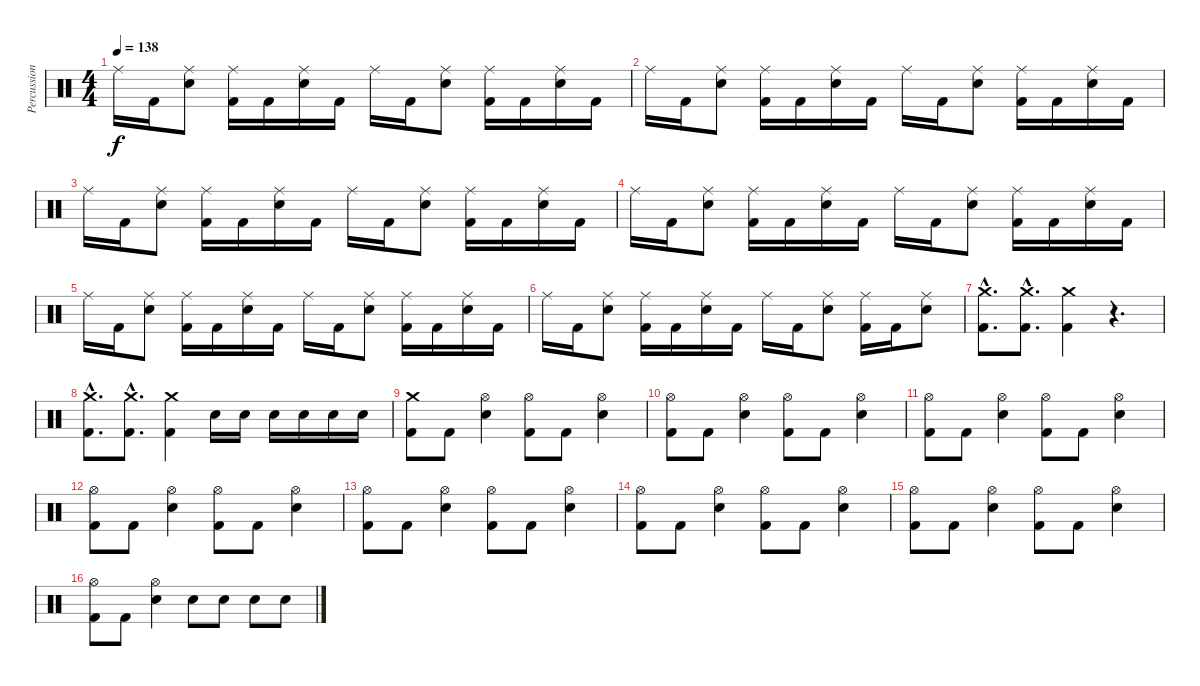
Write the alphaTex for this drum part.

\track ("Percussion" "Percussion") {instrument percussion}
\staff {score}
\articulation defaults
\ts (4 4)
\tempo 138
\clef neutral
\ks c "Ride (middle)".16{dy f} "Kick (hit) 2".16
("Ride (middle)" "Snare (hit) 2").8 ("Ride (middle)" "Kick (hit) 2").16 "Kick (hit) 2".16 ("Ride (middle)" "Snare (hit) 2").16 "Kick (hit) 2".16 "Ride (middle)".16 "Kick (hit) 2".16 ("Ride (middle)" "Snare (hit) 2").8 ("Ride (middle)" "Kick (hit) 2").16 "Kick (hit) 2".16 ("Ride (middle)" "Snare (hit) 2").16 "Kick (hit) 2".16 |
"Ride (middle)".16 "Kick (hit) 2".16 ("Ride (middle)" "Snare (hit) 2").8 ("Ride (middle)" "Kick (hit) 2").16 "Kick (hit) 2".16 ("Ride (middle)" "Snare (hit) 2").16 "Kick (hit) 2".16 "Ride (middle)".16 "Kick (hit) 2".16 ("Ride (middle)" "Snare (hit) 2").8 ("Ride (middle)" "Kick (hit) 2").16 "Kick (hit) 2".16 ("Ride (middle)" "Snare (hit) 2").16 "Kick (hit) 2".16 |
"Ride (middle)".16 "Kick (hit) 2".16 ("Ride (middle)" "Snare (hit) 2").8 ("Ride (middle)" "Kick (hit) 2").16 "Kick (hit) 2".16 ("Ride (middle)" "Snare (hit) 2").16 "Kick (hit) 2".16 "Ride (middle)".16 "Kick (hit) 2".16 ("Ride (middle)" "Snare (hit) 2").8 ("Ride (middle)" "Kick (hit) 2").16 "Kick (hit) 2".16 ("Ride (middle)" "Snare (hit) 2").16 "Kick (hit) 2".16 |
"Ride (middle)".16 "Kick (hit) 2".16 ("Ride (middle)" "Snare (hit) 2").8 ("Ride (middle)" "Kick (hit) 2").16 "Kick (hit) 2".16 ("Ride (middle)" "Snare (hit) 2").16 "Kick (hit) 2".16 "Ride (middle)".16 "Kick (hit) 2".16 ("Ride (middle)" "Snare (hit) 2").8 ("Ride (middle)" "Kick (hit) 2").16 "Kick (hit) 2".16 ("Ride (middle)" "Snare (hit) 2").16 "Kick (hit) 2".16 |
"Ride (middle)".16 "Kick (hit) 2".16 ("Ride (middle)" "Snare (hit) 2").8 ("Ride (middle)" "Kick (hit) 2").16 "Kick (hit) 2".16 ("Ride (middle)" "Snare (hit) 2").16 "Kick (hit) 2".16 "Ride (middle)".16 "Kick (hit) 2".16 ("Ride (middle)" "Snare (hit) 2").8 ("Ride (middle)" "Kick (hit) 2").16 "Kick (hit) 2".16 ("Ride (middle)" "Snare (hit) 2").16 "Kick (hit) 2".16 |
"Ride (middle)".16 "Kick (hit) 2".16 ("Ride (middle)" "Snare (hit) 2").8 ("Ride (middle)" "Kick (hit) 2").16 "Kick (hit) 2".16 ("Ride (middle)" "Snare (hit) 2").16 "Kick (hit) 2".16 "Ride (middle)".16 "Kick (hit) 2".16 ("Ride (middle)" "Snare (hit) 2").8 ("Ride (middle)" "Kick (hit) 2").16 "Kick (hit) 2".16 ("Ride (middle)" "Snare (hit) 2").8 |
("Crash medium (hit)"{hac} "Kick (hit) 2"{hac}).8{d} ("Crash medium (hit)"{hac} "Kick (hit) 2"{hac}).8{d} ("Crash medium (hit)" "Kick (hit) 2").4 r.4{d} |
("Crash medium (hit)"{hac} "Kick (hit) 2"{hac}).8{d} ("Crash medium (hit)"{hac} "Kick (hit) 2"{hac}).8{d} ("Crash medium (hit)" "Kick (hit) 2").4 "Snare (hit) 2".16 "Snare (hit) 2".16 "Snare (hit) 2".16 "Snare (hit) 2".16 "Snare (hit) 2".16 "Snare (hit) 2".16 |
("Crash medium (hit)" "Kick (hit) 2").8 "Kick (hit) 2".8 ("Hi-Hat (open)" "Snare (hit) 2").4 ("Hi-Hat (open)" "Kick (hit) 2").8 "Kick (hit) 2".8 ("Hi-Hat (open)" "Snare (hit) 2").4 |
("Hi-Hat (open)" "Kick (hit) 2").8 "Kick (hit) 2".8 ("Hi-Hat (open)" "Snare (hit) 2").4 ("Hi-Hat (open)" "Kick (hit) 2").8 "Kick (hit) 2".8 ("Hi-Hat (open)" "Snare (hit) 2").4 |
("Hi-Hat (open)" "Kick (hit) 2").8 "Kick (hit) 2".8 ("Hi-Hat (open)" "Snare (hit) 2").4 ("Hi-Hat (open)" "Kick (hit) 2").8 "Kick (hit) 2".8 ("Hi-Hat (open)" "Snare (hit) 2").4 |
("Hi-Hat (open)" "Kick (hit) 2").8 "Kick (hit) 2".8 ("Hi-Hat (open)" "Snare (hit) 2").4 ("Hi-Hat (open)" "Kick (hit) 2").8 "Kick (hit) 2".8 ("Hi-Hat (open)" "Snare (hit) 2").4 |
("Hi-Hat (open)" "Kick (hit) 2").8 "Kick (hit) 2".8 ("Hi-Hat (open)" "Snare (hit) 2").4 ("Hi-Hat (open)" "Kick (hit) 2").8 "Kick (hit) 2".8 ("Hi-Hat (open)" "Snare (hit) 2").4 |
("Hi-Hat (open)" "Kick (hit) 2").8 "Kick (hit) 2".8 ("Hi-Hat (open)" "Snare (hit) 2").4 ("Hi-Hat (open)" "Kick (hit) 2").8 "Kick (hit) 2".8 ("Hi-Hat (open)" "Snare (hit) 2").4 |
("Hi-Hat (open)" "Kick (hit) 2").8 "Kick (hit) 2".8 ("Hi-Hat (open)" "Snare (hit) 2").4 ("Hi-Hat (open)" "Kick (hit) 2").8 "Kick (hit) 2".8 ("Hi-Hat (open)" "Snare (hit) 2").4 |
("Hi-Hat (open)" "Kick (hit) 2").8 "Kick (hit) 2".8 ("Hi-Hat (open)" "Snare (hit) 2").4 "Snare (hit) 2".8 "Snare (hit) 2".8 "Snare (hit) 2".8 "Snare (hit) 2".8
